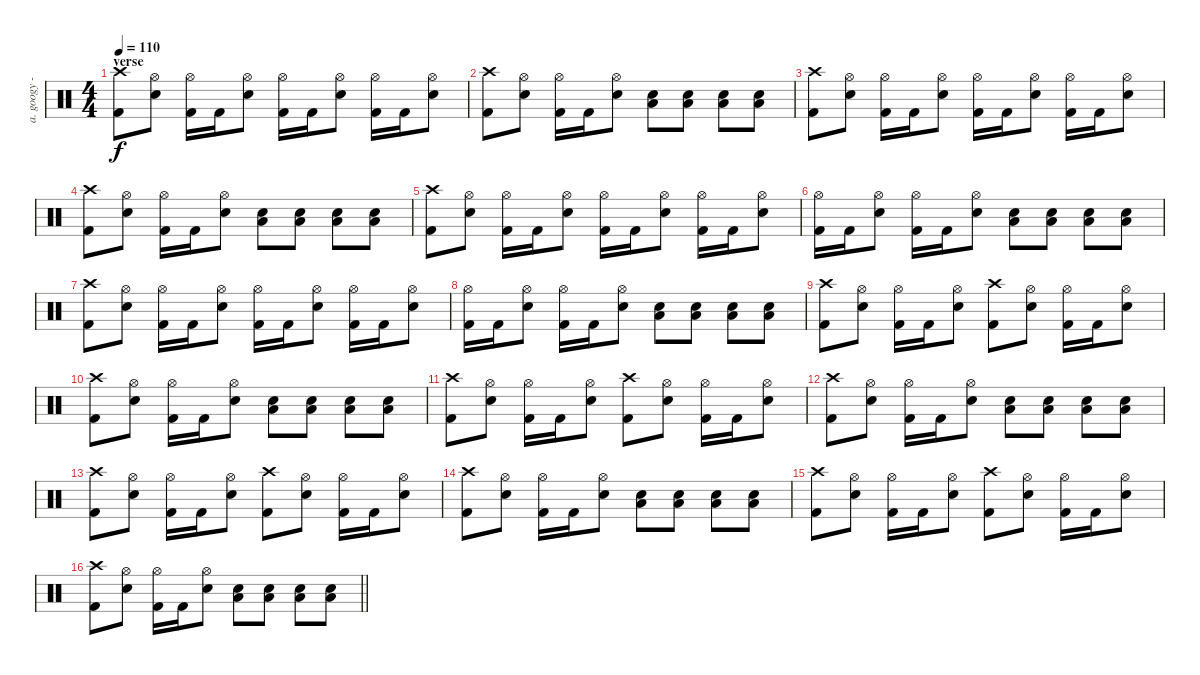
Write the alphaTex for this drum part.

\track ("a. googy - drums" "a. googy -") {instrument percussion}
\staff {score}
\articulation defaults
\ts (4 4)
\section ("" "verse")
\tempo 110
\clef neutral
\ks c
("Crash high (hit)" "Kick (hit) 2").8{dy f} ("Hi-Hat (open)" "Snare (hit) 2").8 ("Hi-Hat (open)" "Kick (hit) 2").16 "Kick (hit) 2".16 ("Hi-Hat (open)" "Snare (hit) 2").8 ("Hi-Hat (open)" "Kick (hit) 2").16 "Kick (hit) 2".16 ("Hi-Hat (open)" "Snare (hit) 2").8 ("Hi-Hat (open)" "Kick (hit) 2").16 "Kick (hit) 2".16 ("Hi-Hat (open)" "Snare (hit) 2").8 |
("Crash high (hit)" "Kick (hit) 2").8 ("Hi-Hat (open)" "Snare (hit) 2").8 ("Hi-Hat (open)" "Kick (hit) 2").16 "Kick (hit) 2".16 ("Hi-Hat (open)" "Snare (hit) 2").8 ("Snare (hit) 2" "Low Floor Tom (hit)").8 ("Snare (hit) 2" "Low Floor Tom (hit)").8 ("Snare (hit) 2" "Low Floor Tom (hit)").8 ("Snare (hit) 2" "Low Floor Tom (hit)").8 |
("Crash high (hit)" "Kick (hit) 2").8 ("Hi-Hat (open)" "Snare (hit) 2").8 ("Hi-Hat (open)" "Kick (hit) 2").16 "Kick (hit) 2".16 ("Hi-Hat (open)" "Snare (hit) 2").8 ("Hi-Hat (open)" "Kick (hit) 2").16 "Kick (hit) 2".16 ("Hi-Hat (open)" "Snare (hit) 2").8 ("Hi-Hat (open)" "Kick (hit) 2").16 "Kick (hit) 2".16 ("Hi-Hat (open)" "Snare (hit) 2").8 |
("Crash high (hit)" "Kick (hit) 2").8 ("Hi-Hat (open)" "Snare (hit) 2").8 ("Hi-Hat (open)" "Kick (hit) 2").16 "Kick (hit) 2".16 ("Hi-Hat (open)" "Snare (hit) 2").8 ("Snare (hit) 2" "Low Floor Tom (hit)").8 ("Snare (hit) 2" "Low Floor Tom (hit)").8 ("Snare (hit) 2" "Low Floor Tom (hit)").8 ("Snare (hit) 2" "Low Floor Tom (hit)").8 |
("Crash high (hit)" "Kick (hit) 2").8 ("Hi-Hat (open)" "Snare (hit) 2").8 ("Hi-Hat (open)" "Kick (hit) 2").16 "Kick (hit) 2".16 ("Hi-Hat (open)" "Snare (hit) 2").8 ("Hi-Hat (open)" "Kick (hit) 2").16 "Kick (hit) 2".16 ("Hi-Hat (open)" "Snare (hit) 2").8 ("Hi-Hat (open)" "Kick (hit) 2").16 "Kick (hit) 2".16 ("Hi-Hat (open)" "Snare (hit) 2").8 |
("Hi-Hat (open)" "Kick (hit) 2").16 "Kick (hit) 2".16 ("Hi-Hat (open)" "Snare (hit) 2").8 ("Hi-Hat (open)" "Kick (hit) 2").16 "Kick (hit) 2".16 ("Hi-Hat (open)" "Snare (hit) 2").8 ("Snare (hit) 2" "Low Floor Tom (hit)").8 ("Snare (hit) 2" "Low Floor Tom (hit)").8 ("Snare (hit) 2" "Low Floor Tom (hit)").8 ("Snare (hit) 2" "Low Floor Tom (hit)").8 |
("Crash high (hit)" "Kick (hit) 2").8 ("Hi-Hat (open)" "Snare (hit) 2").8 ("Hi-Hat (open)" "Kick (hit) 2").16 "Kick (hit) 2".16 ("Hi-Hat (open)" "Snare (hit) 2").8 ("Hi-Hat (open)" "Kick (hit) 2").16 "Kick (hit) 2".16 ("Hi-Hat (open)" "Snare (hit) 2").8 ("Hi-Hat (open)" "Kick (hit) 2").16 "Kick (hit) 2".16 ("Hi-Hat (open)" "Snare (hit) 2").8 |
("Hi-Hat (open)" "Kick (hit) 2").16 "Kick (hit) 2".16 ("Hi-Hat (open)" "Snare (hit) 2").8 ("Hi-Hat (open)" "Kick (hit) 2").16 "Kick (hit) 2".16 ("Hi-Hat (open)" "Snare (hit) 2").8 ("Snare (hit) 2" "Low Floor Tom (hit)").8 ("Snare (hit) 2" "Low Floor Tom (hit)").8 ("Snare (hit) 2" "Low Floor Tom (hit)").8 ("Snare (hit) 2" "Low Floor Tom (hit)").8 |
("Crash high (hit)" "Kick (hit) 2").8 ("Hi-Hat (open)" "Snare (hit) 2").8 ("Hi-Hat (open)" "Kick (hit) 2").16 "Kick (hit) 2".16 ("Hi-Hat (open)" "Snare (hit) 2").8 ("Crash high (hit)" "Kick (hit) 2").8 ("Hi-Hat (open)" "Snare (hit) 2").8 ("Hi-Hat (open)" "Kick (hit) 2").16 "Kick (hit) 2".16 ("Hi-Hat (open)" "Snare (hit) 2").8 |
("Crash high (hit)" "Kick (hit) 2").8 ("Hi-Hat (open)" "Snare (hit) 2").8 ("Hi-Hat (open)" "Kick (hit) 2").16 "Kick (hit) 2".16 ("Hi-Hat (open)" "Snare (hit) 2").8 ("Snare (hit) 2" "Low Floor Tom (hit)").8 ("Snare (hit) 2" "Low Floor Tom (hit)").8 ("Snare (hit) 2" "Low Floor Tom (hit)").8 ("Snare (hit) 2" "Low Floor Tom (hit)").8 |
("Crash high (hit)" "Kick (hit) 2").8 ("Hi-Hat (open)" "Snare (hit) 2").8 ("Hi-Hat (open)" "Kick (hit) 2").16 "Kick (hit) 2".16 ("Hi-Hat (open)" "Snare (hit) 2").8 ("Crash high (hit)" "Kick (hit) 2").8 ("Hi-Hat (open)" "Snare (hit) 2").8 ("Hi-Hat (open)" "Kick (hit) 2").16 "Kick (hit) 2".16 ("Hi-Hat (open)" "Snare (hit) 2").8 |
("Crash high (hit)" "Kick (hit) 2").8 ("Hi-Hat (open)" "Snare (hit) 2").8 ("Hi-Hat (open)" "Kick (hit) 2").16 "Kick (hit) 2".16 ("Hi-Hat (open)" "Snare (hit) 2").8 ("Snare (hit) 2" "Low Floor Tom (hit)").8 ("Snare (hit) 2" "Low Floor Tom (hit)").8 ("Snare (hit) 2" "Low Floor Tom (hit)").8 ("Snare (hit) 2" "Low Floor Tom (hit)").8 |
("Crash high (hit)" "Kick (hit) 2").8 ("Hi-Hat (open)" "Snare (hit) 2").8 ("Hi-Hat (open)" "Kick (hit) 2").16 "Kick (hit) 2".16 ("Hi-Hat (open)" "Snare (hit) 2").8 ("Crash high (hit)" "Kick (hit) 2").8 ("Hi-Hat (open)" "Snare (hit) 2").8 ("Hi-Hat (open)" "Kick (hit) 2").16 "Kick (hit) 2".16 ("Hi-Hat (open)" "Snare (hit) 2").8 |
("Crash high (hit)" "Kick (hit) 2").8 ("Hi-Hat (open)" "Snare (hit) 2").8 ("Hi-Hat (open)" "Kick (hit) 2").16 "Kick (hit) 2".16 ("Hi-Hat (open)" "Snare (hit) 2").8 ("Snare (hit) 2" "Low Floor Tom (hit)").8 ("Snare (hit) 2" "Low Floor Tom (hit)").8 ("Snare (hit) 2" "Low Floor Tom (hit)").8 ("Snare (hit) 2" "Low Floor Tom (hit)").8 |
("Crash high (hit)" "Kick (hit) 2").8 ("Hi-Hat (open)" "Snare (hit) 2").8 ("Hi-Hat (open)" "Kick (hit) 2").16 "Kick (hit) 2".16 ("Hi-Hat (open)" "Snare (hit) 2").8 ("Crash high (hit)" "Kick (hit) 2").8 ("Hi-Hat (open)" "Snare (hit) 2").8 ("Hi-Hat (open)" "Kick (hit) 2").16 "Kick (hit) 2".16 ("Hi-Hat (open)" "Snare (hit) 2").8 |
\barLineRight lightlight
("Crash high (hit)" "Kick (hit) 2").8 ("Hi-Hat (open)" "Snare (hit) 2").8 ("Hi-Hat (open)" "Kick (hit) 2").16 "Kick (hit) 2".16 ("Hi-Hat (open)" "Snare (hit) 2").8 ("Snare (hit) 2" "Low Floor Tom (hit)").8 ("Snare (hit) 2" "Low Floor Tom (hit)").8 ("Snare (hit) 2" "Low Floor Tom (hit)").8 ("Snare (hit) 2" "Low Floor Tom (hit)").8
